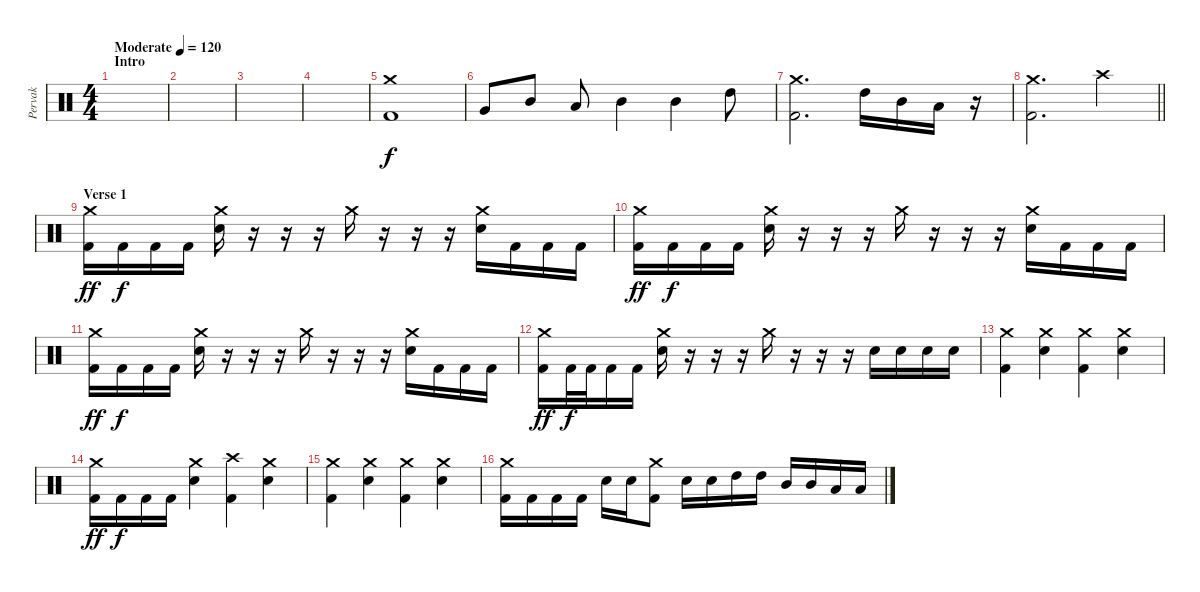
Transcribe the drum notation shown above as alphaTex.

\track ("Pervak" "Pervak") {instrument percussion}
\staff {score}
\articulation defaults
\ts (4 4)
\section ("" "Intro")
\tempo (120 "Moderate")
\clef neutral
\ks c
|
|
|
|
("Crash medium (hit)" "Kick (hit) 2").1 |
"Very Low Tom (hit)".8 "Mid Tom (hit)".8 "Low Tom (hit)".8 "Mid Tom (hit)".4 "Mid Tom (hit)".4 "High Tom (hit)".8 |
("Crash medium (hit)" "Kick (hit) 2").2{d} "High Tom (hit)".16 "Mid Tom (hit)".16 "Low Tom (hit)".16 r.16 |
\barLineRight lightlight
("Crash medium (hit)" "Kick (hit) 2").2{d} "Crash high (hit)".4 |
\section ("" "Verse 1")
("Crash medium (hit)" "Kick (hit) 2").16{dy ff} "Kick (hit) 2".16{dy f} "Kick (hit) 2".16 "Kick (hit) 2".16 ("Crash medium (hit)" "Electric Snare (hit)").16 r.16 r.16 r.16 "Crash medium (hit)".16 r.16 r.16 r.16 ("Crash medium (hit)" "Electric Snare (hit)").16 "Kick (hit) 2".16 "Kick (hit) 2".16 "Kick (hit) 2".16 |
("Crash medium (hit)" "Kick (hit) 2").16{dy ff} "Kick (hit) 2".16{dy f} "Kick (hit) 2".16 "Kick (hit) 2".16 ("Crash medium (hit)" "Electric Snare (hit)").16 r.16 r.16 r.16 "Crash medium (hit)".16 r.16 r.16 r.16 ("Crash medium (hit)" "Electric Snare (hit)").16 "Kick (hit) 2".16 "Kick (hit) 2".16 "Kick (hit) 2".16 |
("Crash medium (hit)" "Kick (hit) 2").16{dy ff} "Kick (hit) 2".16{dy f} "Kick (hit) 2".16 "Kick (hit) 2".16 ("Crash medium (hit)" "Electric Snare (hit)").16 r.16 r.16 r.16 "Crash medium (hit)".16 r.16 r.16 r.16 ("Crash medium (hit)" "Electric Snare (hit)").16 "Kick (hit) 2".16 "Kick (hit) 2".16 "Kick (hit) 2".16 |
("Crash medium (hit)" "Kick (hit) 2").16{dy ff} "Kick (hit) 2".32{dy f} "Kick (hit) 2".32 "Kick (hit) 2".16 "Kick (hit) 2".16 ("Crash medium (hit)" "Electric Snare (hit)").16 r.16 r.16 r.16 "Crash medium (hit)".16 r.16 r.16 r.16 "Electric Snare (hit)".16 "Electric Snare (hit)".16 "Electric Snare (hit)".16 "Electric Snare (hit)".16 |
("Crash medium (hit)" "Kick (hit) 2").4 ("Crash medium (hit)" "Electric Snare (hit)").4 ("Crash medium (hit)" "Kick (hit) 2").4 ("Crash medium (hit)" "Electric Snare (hit)").4 |
("Crash medium (hit)" "Kick (hit) 2").16{dy ff} "Kick (hit) 2".16{dy f} "Kick (hit) 2".16 "Kick (hit) 2".16 ("Crash medium (hit)" "Electric Snare (hit)").4 ("Crash high (hit)" "Kick (hit) 2").4 ("Crash medium (hit)" "Electric Snare (hit)").4 |
("Crash medium (hit)" "Kick (hit) 2").4 ("Crash medium (hit)" "Electric Snare (hit)").4 ("Crash medium (hit)" "Kick (hit) 2").4 ("Crash medium (hit)" "Electric Snare (hit)").4 |
("Crash medium (hit)" "Kick (hit) 2").16 "Kick (hit) 2".16 "Kick (hit) 2".16 "Kick (hit) 2".16 "Electric Snare (hit)".16 "Electric Snare (hit)".16 ("Crash medium (hit)" "Kick (hit) 2").8 "Electric Snare (hit)".16 "Electric Snare (hit)".16 "High Tom (hit)".16 "High Tom (hit)".16 "Mid Tom (hit)".16 "Mid Tom (hit)".16 "Low Tom (hit)".16 "Low Tom (hit)".16
